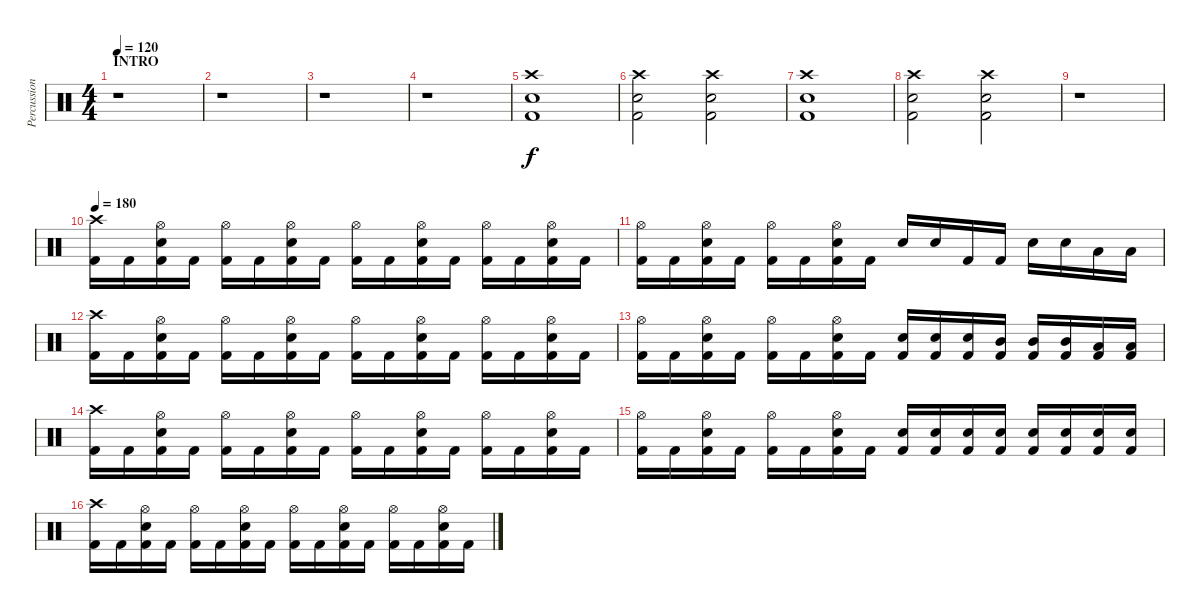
\track ("Percussion" "Percussion") {instrument percussion}
\staff {score}
\articulation defaults
\ts (4 4)
\section ("" "INTRO")
\tempo 120
\clef neutral
\ks c
r.1{dy f} |
r.1 |
r.1 |
r.1 |
("Snare (hit) 2" "Kick (hit) 2" "Crash high (hit)").1 |
("Kick (hit) 2" "Snare (hit) 2" "Crash high (hit)").2 ("Kick (hit) 2" "Snare (hit) 2" "Crash high (hit)").2 |
("Kick (hit) 2" "Snare (hit) 2" "Crash high (hit)").1 |
("Kick (hit) 2" "Crash high (hit)" "Snare (hit) 2").2 ("Kick (hit) 2" "Snare (hit) 2" "Crash high (hit)").2 |
r.1 |
\tempo 180
("Crash high (hit)" "Kick (hit) 2").16 "Kick (hit) 2".16 ("Hi-Hat (open)" "Snare (hit) 2" "Kick (hit) 2").16 "Kick (hit) 2".16 ("Hi-Hat (open)" "Kick (hit) 2").16 "Kick (hit) 2".16 ("Hi-Hat (open)" "Snare (hit) 2" "Kick (hit) 2").16 "Kick (hit) 2".16 ("Hi-Hat (open)" "Kick (hit) 2").16 "Kick (hit) 2".16 ("Hi-Hat (open)" "Snare (hit) 2" "Kick (hit) 2").16 "Kick (hit) 2".16 ("Hi-Hat (open)" "Kick (hit) 2").16 "Kick (hit) 2".16 ("Hi-Hat (open)" "Snare (hit) 2" "Kick (hit) 2").16 "Kick (hit) 2".16 |
("Hi-Hat (open)" "Kick (hit) 2").16 "Kick (hit) 2".16 ("Hi-Hat (open)" "Snare (hit) 2" "Kick (hit) 2").16 "Kick (hit) 2".16 ("Hi-Hat (open)" "Kick (hit) 2").16 "Kick (hit) 2".16 ("Hi-Hat (open)" "Snare (hit) 2" "Kick (hit) 2").16 "Kick (hit) 2".16 "Snare (hit) 2".16 "Snare (hit) 2".16 "Kick (hit) 2".16 "Kick (hit) 2".16 "Snare (hit) 2".16 "Snare (hit) 2".16 "Low Tom (hit)".16 "Low Tom (hit)".16 |
("Crash high (hit)" "Kick (hit) 2").16 "Kick (hit) 2".16 ("Hi-Hat (open)" "Snare (hit) 2" "Kick (hit) 2").16 "Kick (hit) 2".16 ("Hi-Hat (open)" "Kick (hit) 2").16 "Kick (hit) 2".16 ("Hi-Hat (open)" "Snare (hit) 2" "Kick (hit) 2").16 "Kick (hit) 2".16 ("Hi-Hat (open)" "Kick (hit) 2").16 "Kick (hit) 2".16 ("Hi-Hat (open)" "Snare (hit) 2" "Kick (hit) 2").16 "Kick (hit) 2".16 ("Hi-Hat (open)" "Kick (hit) 2").16 "Kick (hit) 2".16 ("Hi-Hat (open)" "Snare (hit) 2" "Kick (hit) 2").16 "Kick (hit) 2".16 |
("Hi-Hat (open)" "Kick (hit) 2").16 "Kick (hit) 2".16 ("Hi-Hat (open)" "Snare (hit) 2" "Kick (hit) 2").16 "Kick (hit) 2".16 ("Hi-Hat (open)" "Kick (hit) 2").16 "Kick (hit) 2".16 ("Hi-Hat (open)" "Snare (hit) 2" "Kick (hit) 2").16 "Kick (hit) 2".16 ("Snare (hit) 2" "Kick (hit) 2").16 ("Snare (hit) 2" "Kick (hit) 2").16 ("Snare (hit) 2" "Kick (hit) 2").16 ("Mid Tom (hit)" "Kick (hit) 2").16 ("Mid Tom (hit)" "Kick (hit) 2").16 ("Mid Tom (hit)" "Kick (hit) 2").16 ("Low Tom (hit)" "Kick (hit) 2").16 ("Low Tom (hit)" "Kick (hit) 2").16 |
("Crash high (hit)" "Kick (hit) 2").16 "Kick (hit) 2".16 ("Hi-Hat (open)" "Snare (hit) 2" "Kick (hit) 2").16 "Kick (hit) 2".16 ("Hi-Hat (open)" "Kick (hit) 2").16 "Kick (hit) 2".16 ("Hi-Hat (open)" "Snare (hit) 2" "Kick (hit) 2").16 "Kick (hit) 2".16 ("Hi-Hat (open)" "Kick (hit) 2").16 "Kick (hit) 2".16 ("Hi-Hat (open)" "Snare (hit) 2" "Kick (hit) 2").16 "Kick (hit) 2".16 ("Hi-Hat (open)" "Kick (hit) 2").16 "Kick (hit) 2".16 ("Hi-Hat (open)" "Snare (hit) 2" "Kick (hit) 2").16 "Kick (hit) 2".16 |
("Hi-Hat (open)" "Kick (hit) 2").16 "Kick (hit) 2".16 ("Hi-Hat (open)" "Snare (hit) 2" "Kick (hit) 2").16 "Kick (hit) 2".16 ("Hi-Hat (open)" "Kick (hit) 2").16 "Kick (hit) 2".16 ("Hi-Hat (open)" "Snare (hit) 2" "Kick (hit) 2").16 "Kick (hit) 2".16 ("Snare (hit) 2" "Kick (hit) 2").16 ("Snare (hit) 2" "Kick (hit) 2").16 ("Snare (hit) 2" "Kick (hit) 2").16 ("Snare (hit) 2" "Kick (hit) 2").16 ("Snare (hit) 2" "Kick (hit) 2").16 ("Snare (hit) 2" "Kick (hit) 2").16 ("Snare (hit) 2" "Kick (hit) 2").16 ("Snare (hit) 2" "Kick (hit) 2").16 |
("Crash high (hit)" "Kick (hit) 2").16 "Kick (hit) 2".16 ("Hi-Hat (open)" "Snare (hit) 2" "Kick (hit) 2").16 "Kick (hit) 2".16 ("Hi-Hat (open)" "Kick (hit) 2").16 "Kick (hit) 2".16 ("Hi-Hat (open)" "Snare (hit) 2" "Kick (hit) 2").16 "Kick (hit) 2".16 ("Hi-Hat (open)" "Kick (hit) 2").16 "Kick (hit) 2".16 ("Hi-Hat (open)" "Snare (hit) 2" "Kick (hit) 2").16 "Kick (hit) 2".16 ("Hi-Hat (open)" "Kick (hit) 2").16 "Kick (hit) 2".16 ("Hi-Hat (open)" "Snare (hit) 2" "Kick (hit) 2").16 "Kick (hit) 2".16
